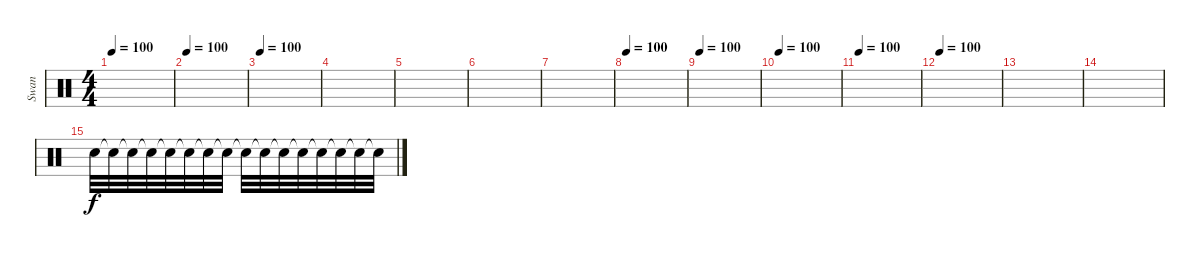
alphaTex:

\track ("Swan" "Swan") {instrument percussion}
\staff {score}
\articulation defaults
\ts (4 4)
\tempo 100
\clef neutral
\ks c
|
\tempo 100
|
\tempo 100
|
|
|
|
|
\tempo 100
|
\tempo 100
|
\tempo 100
|
\tempo 100
|
\tempo 100
|
|
|
"Snare (hit)".32 "Snare (hit)"{t}.32 "Snare (hit)"{t}.32 "Snare (hit)"{t}.32 "Snare (hit)"{t}.32 "Snare (hit)"{t}.32 "Snare (hit)"{t}.32 "Snare (hit)"{t}.32 "Snare (hit)"{t}.32 "Snare (hit)"{t}.32 "Snare (hit)"{t}.32 "Snare (hit)"{t}.32 "Snare (hit)"{t}.32 "Snare (hit)"{t}.32 "Snare (hit)"{t}.32 "Snare (hit)"{t}.32
